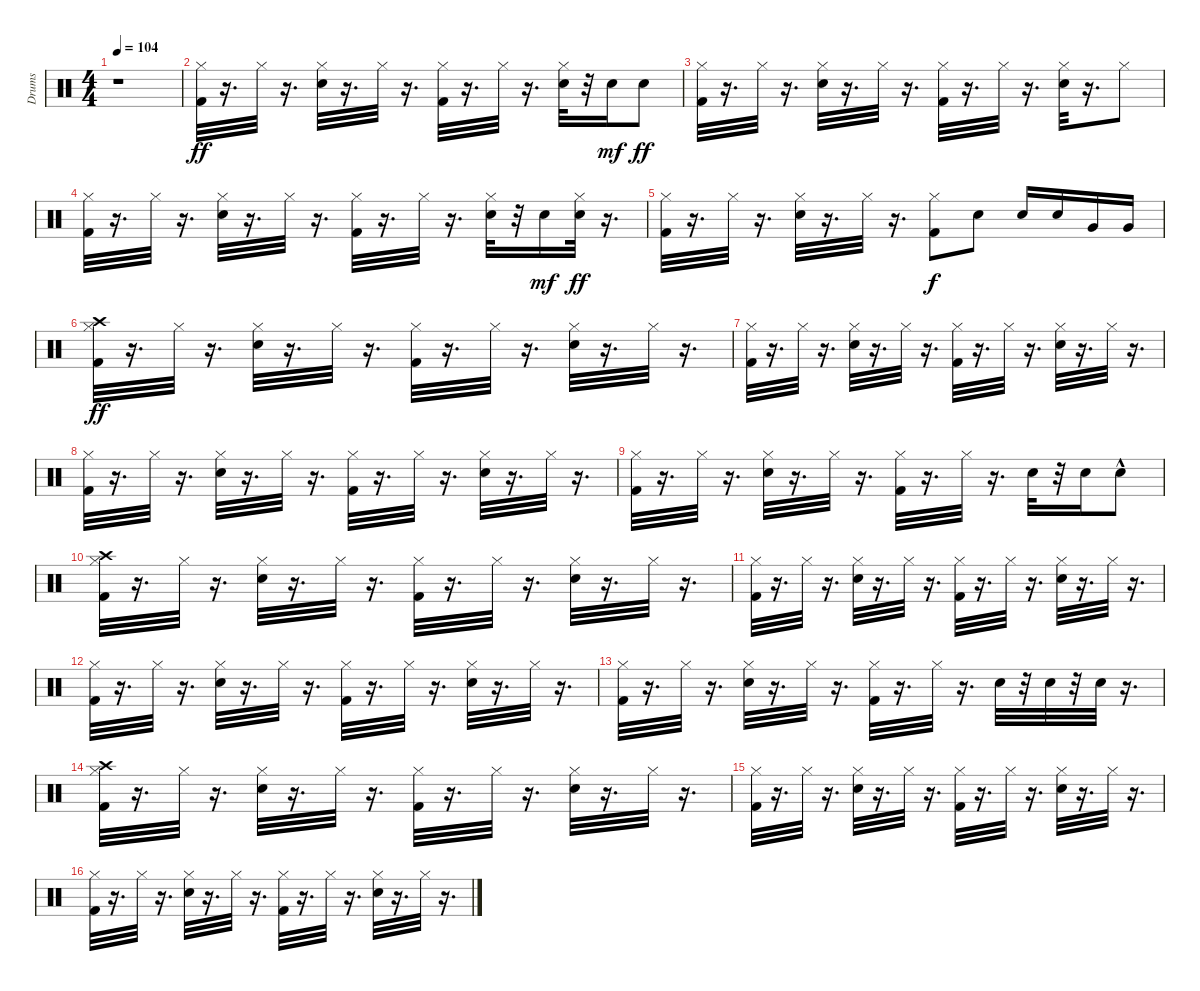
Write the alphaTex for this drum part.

\track ("Drums" "Drums") {instrument percussion}
\staff {score}
\articulation defaults
\ts (4 4)
\tempo 104
\clef neutral
\ks c
r.1{dy ff} |
("Kick (hit) 2" "Hi-Hat (closed)").32 r.16{d} "Hi-Hat (closed)".32 r.16{d} ("Snare (hit) 2" "Hi-Hat (closed)").32 r.16{d} "Hi-Hat (closed)".32 r.16{d} ("Kick (hit) 2" "Hi-Hat (closed)").32 r.16{d} "Hi-Hat (closed)".32 r.16{d} ("Snare (hit) 2" "Hi-Hat (closed)").32 r.32 "Snare (hit) 2".16{dy mf} "Snare (hit) 2".8{dy ff} |
("Kick (hit) 2" "Hi-Hat (closed)").32{volume 12 balance 8} r.16{d} "Hi-Hat (closed)".32 r.16{d} ("Snare (hit) 2" "Hi-Hat (closed)").32 r.16{d} "Hi-Hat (closed)".32 r.16{d} ("Kick (hit) 2" "Hi-Hat (closed)").32 r.16{d} "Hi-Hat (closed)".32 r.16{d} ("Snare (hit) 2" "Hi-Hat (closed)").32 r.16{d} "Hi-Hat (closed)".8 |
("Kick (hit) 2" "Hi-Hat (closed)").32{volume 12 balance 8} r.16{d} "Hi-Hat (closed)".32 r.16{d} ("Snare (hit) 2" "Hi-Hat (closed)").32 r.16{d} "Hi-Hat (closed)".32 r.16{d} ("Kick (hit) 2" "Hi-Hat (closed)").32 r.16{d} "Hi-Hat (closed)".32 r.16{d} ("Snare (hit) 2" "Hi-Hat (closed)").32 r.32 "Snare (hit) 2".16{dy mf} ("Snare (hit) 2" "Hi-Hat (closed)").32{dy ff} r.16{d} |
("Kick (hit) 2" "Hi-Hat (closed)").32{volume 12 balance 8} r.16{d} "Hi-Hat (closed)".32 r.16{d} ("Snare (hit) 2" "Hi-Hat (closed)").32 r.16{d} "Hi-Hat (closed)".32 r.16{d} ("Kick (hit) 2" "Hi-Hat (closed)").8{dy f} "Snare (hit) 2".8 "Snare (hit) 2".16 "Snare (hit) 2".16 "Very Low Tom (hit)".16 "Very Low Tom (hit)".16 |
("Kick (hit) 2" "Hi-Hat (closed)" "Crash high (hit)").32{dy ff volume 12 balance 8} r.16{d} "Hi-Hat (closed)".32 r.16{d} ("Snare (hit) 2" "Hi-Hat (closed)").32 r.16{d} "Hi-Hat (closed)".32 r.16{d} ("Kick (hit) 2" "Hi-Hat (closed)").32 r.16{d} "Hi-Hat (closed)".32 r.16{d} ("Snare (hit) 2" "Hi-Hat (closed)").32 r.16{d} "Hi-Hat (closed)".32 r.16{d} |
("Kick (hit) 2" "Hi-Hat (closed)").32{volume 12 balance 8} r.16{d} "Hi-Hat (closed)".32 r.16{d} ("Snare (hit) 2" "Hi-Hat (closed)").32 r.16{d} "Hi-Hat (closed)".32 r.16{d} ("Kick (hit) 2" "Hi-Hat (closed)").32 r.16{d} "Hi-Hat (closed)".32 r.16{d} ("Snare (hit) 2" "Hi-Hat (closed)").32 r.16{d} "Hi-Hat (closed)".32 r.16{d} |
("Kick (hit) 2" "Hi-Hat (closed)").32{volume 12 balance 8} r.16{d} "Hi-Hat (closed)".32 r.16{d} ("Snare (hit) 2" "Hi-Hat (closed)").32 r.16{d} "Hi-Hat (closed)".32 r.16{d} ("Kick (hit) 2" "Hi-Hat (closed)").32 r.16{d} "Hi-Hat (closed)".32 r.16{d} ("Snare (hit) 2" "Hi-Hat (closed)").32 r.16{d} "Hi-Hat (closed)".32 r.16{d} |
("Kick (hit) 2" "Hi-Hat (closed)").32{volume 12 balance 8} r.16{d} "Hi-Hat (closed)".32 r.16{d} ("Snare (hit) 2" "Hi-Hat (closed)").32 r.16{d} "Hi-Hat (closed)".32 r.16{d} ("Kick (hit) 2" "Hi-Hat (closed)").32 r.16{d} "Hi-Hat (closed)".32 r.16{d} "Snare (hit) 2".32 r.32 "Snare (hit) 2".16 "Snare (hit) 2"{hac}.8 |
("Kick (hit) 2" "Hi-Hat (closed)" "Crash high (hit)").32{volume 12 balance 8} r.16{d} "Hi-Hat (closed)".32 r.16{d} ("Snare (hit) 2" "Hi-Hat (closed)").32 r.16{d} "Hi-Hat (closed)".32 r.16{d} ("Kick (hit) 2" "Hi-Hat (closed)").32 r.16{d} "Hi-Hat (closed)".32 r.16{d} ("Snare (hit) 2" "Hi-Hat (closed)").32 r.16{d} "Hi-Hat (closed)".32 r.16{d} |
("Kick (hit) 2" "Hi-Hat (closed)").32{volume 12 balance 8} r.16{d} "Hi-Hat (closed)".32 r.16{d} ("Snare (hit) 2" "Hi-Hat (closed)").32 r.16{d} "Hi-Hat (closed)".32 r.16{d} ("Kick (hit) 2" "Hi-Hat (closed)").32 r.16{d} "Hi-Hat (closed)".32 r.16{d} ("Snare (hit) 2" "Hi-Hat (closed)").32 r.16{d} "Hi-Hat (closed)".32 r.16{d} |
("Kick (hit) 2" "Hi-Hat (closed)").32{volume 12 balance 8} r.16{d} "Hi-Hat (closed)".32 r.16{d} ("Snare (hit) 2" "Hi-Hat (closed)").32 r.16{d} "Hi-Hat (closed)".32 r.16{d} ("Kick (hit) 2" "Hi-Hat (closed)").32 r.16{d} "Hi-Hat (closed)".32 r.16{d} ("Snare (hit) 2" "Hi-Hat (closed)").32 r.16{d} "Hi-Hat (closed)".32 r.16{d} |
("Kick (hit) 2" "Hi-Hat (closed)").32{volume 12 balance 8} r.16{d} "Hi-Hat (closed)".32 r.16{d} ("Snare (hit) 2" "Hi-Hat (closed)").32 r.16{d} "Hi-Hat (closed)".32 r.16{d} ("Kick (hit) 2" "Hi-Hat (closed)").32 r.16{d} "Hi-Hat (closed)".32 r.16{d} "Snare (hit) 2".32 r.32 "Snare (hit) 2".32 r.32 "Snare (hit) 2".32 r.16{d} |
("Kick (hit) 2" "Hi-Hat (closed)" "Crash high (hit)").32{volume 12 balance 8} r.16{d} "Hi-Hat (closed)".32 r.16{d} ("Snare (hit) 2" "Hi-Hat (closed)").32 r.16{d} "Hi-Hat (closed)".32 r.16{d} ("Kick (hit) 2" "Hi-Hat (closed)").32 r.16{d} "Hi-Hat (closed)".32 r.16{d} ("Snare (hit) 2" "Hi-Hat (closed)").32 r.16{d} "Hi-Hat (closed)".32 r.16{d} |
("Kick (hit) 2" "Hi-Hat (closed)").32{volume 12 balance 8} r.16{d} "Hi-Hat (closed)".32 r.16{d} ("Snare (hit) 2" "Hi-Hat (closed)").32 r.16{d} "Hi-Hat (closed)".32 r.16{d} ("Kick (hit) 2" "Hi-Hat (closed)").32 r.16{d} "Hi-Hat (closed)".32 r.16{d} ("Snare (hit) 2" "Hi-Hat (closed)").32 r.16{d} "Hi-Hat (closed)".32 r.16{d} |
("Kick (hit) 2" "Hi-Hat (closed)").32{volume 12 balance 8} r.16{d} "Hi-Hat (closed)".32 r.16{d} ("Snare (hit) 2" "Hi-Hat (closed)").32 r.16{d} "Hi-Hat (closed)".32 r.16{d} ("Kick (hit) 2" "Hi-Hat (closed)").32 r.16{d} "Hi-Hat (closed)".32 r.16{d} ("Snare (hit) 2" "Hi-Hat (closed)").32 r.16{d} "Hi-Hat (closed)".32 r.16{d}
